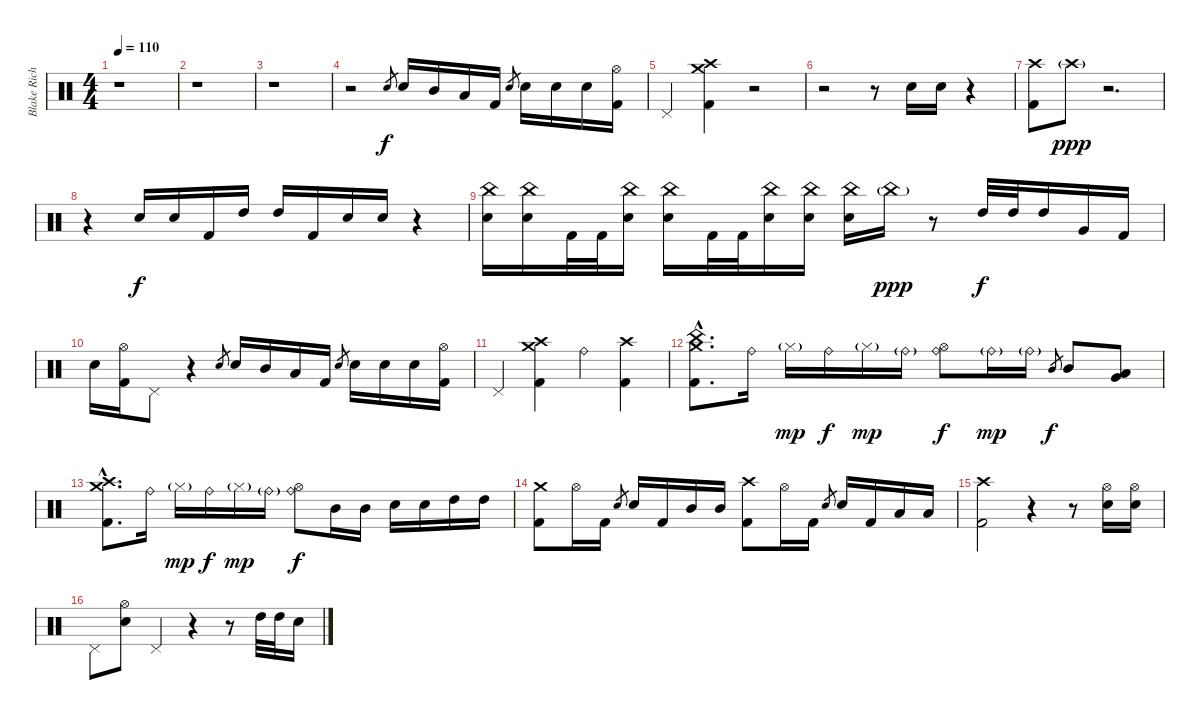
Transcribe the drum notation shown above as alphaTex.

\track ("Blake Richardson - Drums" "Blake Rich") {instrument percussion}
\staff {score}
\articulation defaults
\ts (4 4)
\tempo 110
\clef neutral
\ks c
r.1{dy f} |
r.1 |
r.1 |
r.2 "Electric Snare (hit)".8{gr} "Electric Snare (hit)".16 "Mid Tom (hit)".16 "Low Tom (hit)".16 "Kick (hit) 2".16 "Electric Snare (hit)".8{gr} "Electric Snare (hit)".16 "Electric Snare (hit)".16 "Electric Snare (hit)".16 ("Hi-Hat (open)" "Kick (hit) 2").16 |
"Pedal Hi-Hat (hit)".4 ("Crash high (hit)" "Crash medium (hit)" "Kick (hit) 2").4 r.2 |
r.2 r.8 "Electric Snare (hit)".16 "Electric Snare (hit)".16 r.4 |
("Crash high (hit)" "Kick (hit) 2").8 "Crash high (hit)"{g}.8{dy ppp volume 0} r.2{d} |
r.4 "Electric Snare (hit)".16{dy f volume 16} "Electric Snare (hit)".16 "Kick (hit) 2".16 "High Tom (hit)".16 "High Tom (hit)".16 "Kick (hit) 2".16 "Electric Snare (hit)".16 "Electric Snare (hit)".16 r.4 |
("China (hit)" "Electric Snare (hit)").16 ("China (hit)" "Electric Snare (hit)").16 "Kick (hit) 2".32 "Kick (hit) 2".32 ("China (hit)" "Electric Snare (hit)").16 ("China (hit)" "Electric Snare (hit)").16 "Kick (hit) 2".32 "Kick (hit) 2".32 ("China (hit)" "Electric Snare (hit)").16 ("China (hit)" "Electric Snare (hit)").16 ("China (hit)" "Electric Snare (hit)").16 "China (hit)"{g}.16{dy ppp volume 0} r.8 "High Tom (hit)".32{dy f volume 16} "High Tom (hit)".32 "High Tom (hit)".16 "Very Low Tom (hit)".16 "Kick (hit) 2".16 |
"Electric Snare (hit)".16 ("Hi-Hat (open)" "Kick (hit) 2").16 "Pedal Hi-Hat (hit)".8 r.4 "Electric Snare (hit)".8{gr} "Electric Snare (hit)".16 "Mid Tom (hit)".16 "Low Tom (hit)".16 "Kick (hit) 2".16 "Electric Snare (hit)".8{gr} "Electric Snare (hit)".16 "Electric Snare (hit)".16 "Electric Snare (hit)".16 ("Hi-Hat (open)" "Kick (hit) 2").16 |
"Pedal Hi-Hat (hit)".4 ("Crash high (hit)" "Crash medium (hit)" "Kick (hit) 2").4 "Ride (bell)".4 ("Crash high (hit)" "Kick (hit) 2").4 |
("Crash medium (hit)"{hac} "China (hit)"{hac} "Kick (hit) 2"{hac}).8{d} "Ride (bell)".16 "Hi-Hat (closed)"{g}.16{dy mp} "Ride (bell)".16{dy f} "Hi-Hat (closed)"{g}.16{dy mp} "Ride (bell)"{g}.16 ("Ride (bell)" "Hi-Hat (open)").8{dy f} "Ride (bell)"{g}.16{dy mp} "Ride (bell)"{g}.16 "Mid Tom (hit)".8{gr dy f} "Mid Tom (hit)".8 ("Low Tom (hit)" "Very Low Tom (hit)").8 |
("Crash medium (hit)"{hac} "Crash high (hit)"{hac} "Kick (hit) 2"{hac}).8{d} "Ride (bell)".16 "Hi-Hat (closed)"{g}.16{dy mp} "Ride (bell)".16{dy f} "Hi-Hat (closed)"{g}.16{dy mp} "Ride (bell)"{g}.16 ("Ride (bell)" "Hi-Hat (open)").8{dy f} "Mid Tom (hit)".16 "Mid Tom (hit)".16 "Electric Snare (hit)".16 "Electric Snare (hit)".16 "High Tom (hit)".16 "High Tom (hit)".16 |
("Crash medium (hit)" "Kick (hit) 2").8 "Hi-Hat (open)".16 "Kick (hit) 2".16 "Electric Snare (hit)".8{gr} "Electric Snare (hit)".16 "Kick (hit) 2".16 "Mid Tom (hit)".16 "Mid Tom (hit)".16 ("Crash high (hit)" "Kick (hit) 2").8 "Hi-Hat (open)".16 "Kick (hit) 2".16 "Electric Snare (hit)".8{gr} "Electric Snare (hit)".16 "Kick (hit) 2".16 "Low Tom (hit)".16 "Low Tom (hit)".16 |
("Crash high (hit)" "Kick (hit) 2").2 r.4 r.8 ("Hi-Hat (open)" "Electric Snare (hit)").16 ("Hi-Hat (open)" "Electric Snare (hit)").16 |
"Pedal Hi-Hat (hit)".8 ("Hi-Hat (open)" "Electric Snare (hit)").8 "Pedal Hi-Hat (hit)".4 r.4 r.8 "High Tom (hit)".32 "High Tom (hit)".32 "Electric Snare (hit)".16
